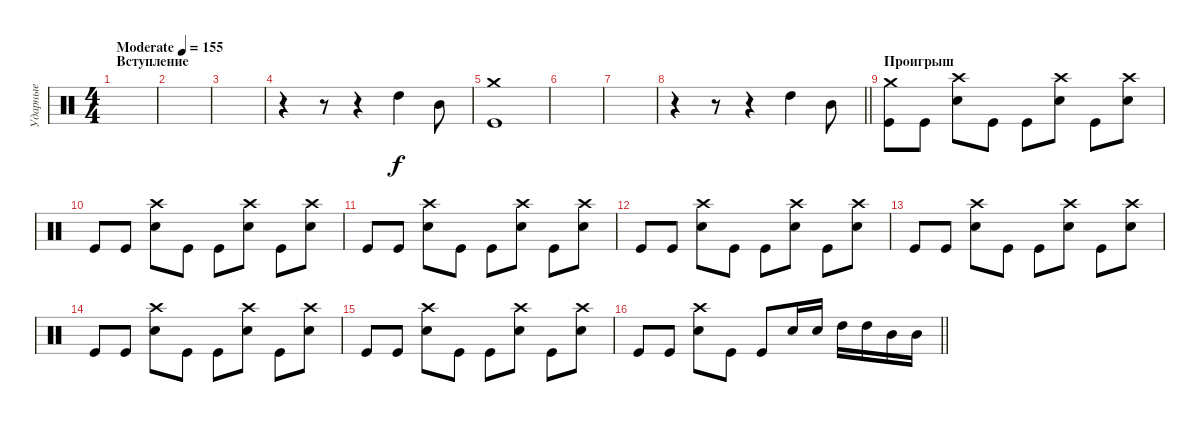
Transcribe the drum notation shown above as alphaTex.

\track ("Ударные" "Ударные") {instrument percussion}
\staff {score}
\articulation defaults
\ts (4 4)
\section ("" "Вступление")
\tempo (155 "Moderate")
\clef neutral
\ks c
|
|
|
r.4 r.8 r.4 "High Tom (hit)".4 "Mid Tom (hit)".8 |
("Crash medium (hit)" "Kick (hit)").1 |
|
|
\barLineRight lightlight
r.4 r.8 r.4 "High Tom (hit)".4 "Mid Tom (hit)".8 |
\section ("" "Проигрыш")
("Crash medium (hit)" "Kick (hit)").8 "Kick (hit)".8 ("Electric Snare (hit)" "Crash high (hit)").8 "Kick (hit)".8 "Kick (hit)".8 ("Electric Snare (hit)" "Crash high (hit)").8 "Kick (hit)".8 ("Electric Snare (hit)" "Crash high (hit)").8 |
"Kick (hit)".8 "Kick (hit)".8 ("Electric Snare (hit)" "Crash high (hit)").8 "Kick (hit)".8 "Kick (hit)".8 ("Electric Snare (hit)" "Crash high (hit)").8 "Kick (hit)".8 ("Electric Snare (hit)" "Crash high (hit)").8 |
"Kick (hit)".8 "Kick (hit)".8 ("Electric Snare (hit)" "Crash high (hit)").8 "Kick (hit)".8 "Kick (hit)".8 ("Electric Snare (hit)" "Crash high (hit)").8 "Kick (hit)".8 ("Electric Snare (hit)" "Crash high (hit)").8 |
"Kick (hit)".8 "Kick (hit)".8 ("Electric Snare (hit)" "Crash high (hit)").8 "Kick (hit)".8 "Kick (hit)".8 ("Electric Snare (hit)" "Crash high (hit)").8 "Kick (hit)".8 ("Electric Snare (hit)" "Crash high (hit)").8 |
"Kick (hit)".8 "Kick (hit)".8 ("Electric Snare (hit)" "Crash high (hit)").8 "Kick (hit)".8 "Kick (hit)".8 ("Electric Snare (hit)" "Crash high (hit)").8 "Kick (hit)".8 ("Electric Snare (hit)" "Crash high (hit)").8 |
"Kick (hit)".8 "Kick (hit)".8 ("Electric Snare (hit)" "Crash high (hit)").8 "Kick (hit)".8 "Kick (hit)".8 ("Electric Snare (hit)" "Crash high (hit)").8 "Kick (hit)".8 ("Electric Snare (hit)" "Crash high (hit)").8 |
"Kick (hit)".8 "Kick (hit)".8 ("Electric Snare (hit)" "Crash high (hit)").8 "Kick (hit)".8 "Kick (hit)".8 ("Electric Snare (hit)" "Crash high (hit)").8 "Kick (hit)".8 ("Electric Snare (hit)" "Crash high (hit)").8 |
\barLineRight lightlight "Kick (hit)".8 "Kick (hit)".8
("Electric Snare (hit)" "Crash high (hit)").8 "Kick (hit)".8 "Kick (hit)".8 "Electric Snare (hit)".16 "Electric Snare (hit)".16 "High Tom (hit)".16 "High Tom (hit)".16 "Mid Tom (hit)".16 "Mid Tom (hit)".16
